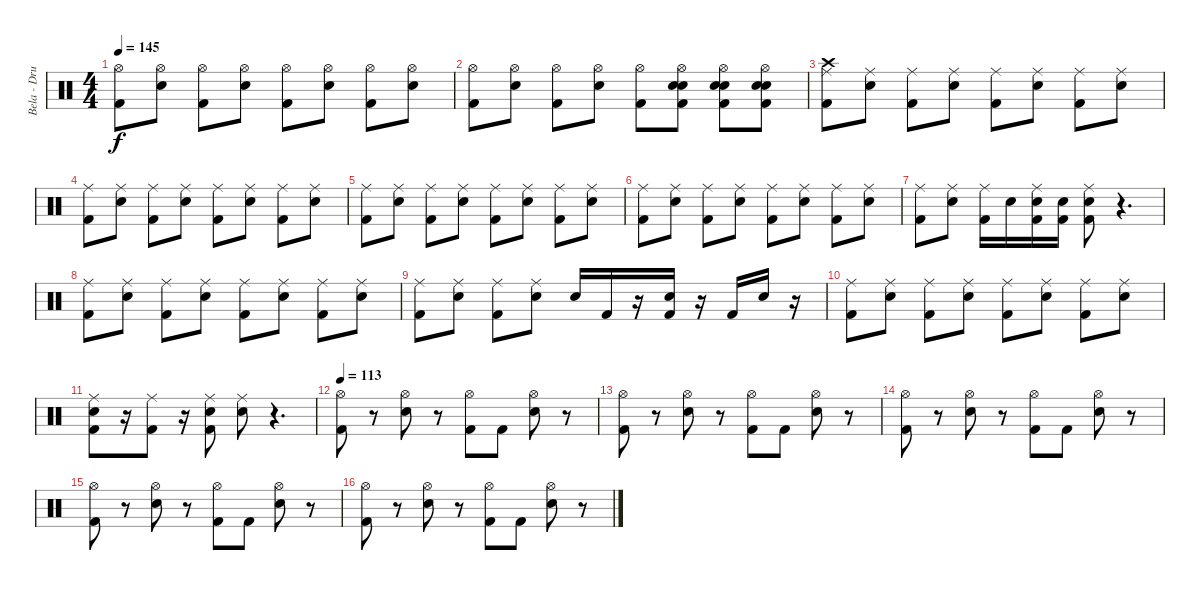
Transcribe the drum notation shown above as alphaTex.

\track ("Bela - Drums" "Bela - Dru") {instrument percussion}
\staff {score}
\articulation defaults
\ts (4 4)
\tempo 145
\clef neutral
\ks c
("Hi-Hat (open)" "Kick (hit) 2").8{dy f} ("Hi-Hat (open)" "Electric Snare (hit)").8 ("Hi-Hat (open)" "Kick (hit) 2").8 ("Hi-Hat (open)" "Electric Snare (hit)").8 ("Kick (hit) 2" "Hi-Hat (open)").8 ("Hi-Hat (open)" "Electric Snare (hit)").8 ("Hi-Hat (open)" "Kick (hit) 2").8 ("Electric Snare (hit)" "Hi-Hat (open)").8 |
("Kick (hit) 2" "Hi-Hat (open)").8 ("Electric Snare (hit)" "Hi-Hat (open)").8 ("Hi-Hat (open)" "Kick (hit) 2").8 ("Electric Snare (hit)" "Hi-Hat (open)").8 ("Hi-Hat (open)" "Kick (hit) 2").8 ("Snare (hit) 2" "Kick (hit) 2" "Hi-Hat (open)" "Electric Snare (hit)").8 ("Electric Snare (hit)" "Snare (hit) 2" "Kick (hit) 2" "Hi-Hat (open)").8 ("Kick (hit) 2" "Hi-Hat (open)" "Electric Snare (hit)" "Snare (hit) 2").8 |
("Ride (middle)" "Kick (hit) 2" "Crash high (hit)").8 ("Ride (middle)" "Electric Snare (hit)").8 ("Ride (middle)" "Kick (hit) 2").8 ("Ride (middle)" "Electric Snare (hit)").8 ("Ride (middle)" "Kick (hit) 2").8 ("Ride (middle)" "Electric Snare (hit)").8 ("Kick (hit) 2" "Ride (middle)").8 ("Ride (middle)" "Electric Snare (hit)").8 |
("Ride (middle)" "Kick (hit) 2").8 ("Ride (middle)" "Electric Snare (hit)").8 ("Ride (middle)" "Kick (hit) 2").8 ("Ride (middle)" "Electric Snare (hit)").8 ("Ride (middle)" "Kick (hit) 2").8 ("Ride (middle)" "Electric Snare (hit)").8 ("Kick (hit) 2" "Ride (middle)").8 ("Ride (middle)" "Electric Snare (hit)").8 |
("Ride (middle)" "Kick (hit) 2").8 ("Ride (middle)" "Electric Snare (hit)").8 ("Ride (middle)" "Kick (hit) 2").8 ("Ride (middle)" "Electric Snare (hit)").8 ("Ride (middle)" "Kick (hit) 2").8 ("Ride (middle)" "Electric Snare (hit)").8 ("Kick (hit) 2" "Ride (middle)").8 ("Ride (middle)" "Electric Snare (hit)").8 |
("Ride (middle)" "Kick (hit) 2").8 ("Ride (middle)" "Electric Snare (hit)").8 ("Ride (middle)" "Kick (hit) 2").8 ("Ride (middle)" "Electric Snare (hit)").8 ("Ride (middle)" "Kick (hit) 2").8 ("Ride (middle)" "Electric Snare (hit)").8 ("Ride (middle)" "Kick (hit) 2").8 ("Ride (middle)" "Electric Snare (hit)").8 |
("Ride (middle)" "Kick (hit) 2").8 ("Ride (middle)" "Electric Snare (hit)").8 ("Ride (middle)" "Kick (hit) 2").16 "Electric Snare (hit)".16 ("Electric Snare (hit)" "Kick (hit) 2" "Ride (middle)").16 ("Electric Snare (hit)" "Kick (hit) 2").16 ("Kick (hit) 2" "Ride (middle)" "Electric Snare (hit)").8 r.4{d} |
("Ride (middle)" "Kick (hit) 2").8 ("Ride (middle)" "Electric Snare (hit)").8 ("Ride (middle)" "Kick (hit) 2").8 ("Ride (middle)" "Electric Snare (hit)").8 ("Ride (middle)" "Kick (hit) 2").8 ("Ride (middle)" "Electric Snare (hit)").8 ("Ride (middle)" "Kick (hit) 2").8 ("Ride (middle)" "Electric Snare (hit)").8 |
("Ride (middle)" "Kick (hit) 2").8 ("Ride (middle)" "Electric Snare (hit)").8 ("Ride (middle)" "Kick (hit) 2").8 ("Ride (middle)" "Electric Snare (hit)").8 "Electric Snare (hit)".16 "Kick (hit) 2".16 r.16 ("Electric Snare (hit)" "Kick (hit) 2").16 r.16 "Kick (hit) 2".16 "Electric Snare (hit)".16 r.16 |
("Ride (middle)" "Kick (hit) 2").8 ("Ride (middle)" "Electric Snare (hit)").8 ("Ride (middle)" "Kick (hit) 2").8 ("Ride (middle)" "Electric Snare (hit)").8 ("Ride (middle)" "Kick (hit) 2").8 ("Ride (middle)" "Electric Snare (hit)").8 ("Ride (middle)" "Kick (hit) 2").8 ("Electric Snare (hit)" "Ride (middle)").8 |
("Ride (middle)" "Kick (hit) 2" "Electric Snare (hit)").8 r.16 ("Ride (middle)" "Kick (hit) 2").8 r.16 ("Electric Snare (hit)" "Ride (middle)" "Kick (hit) 2").8 ("Electric Snare (hit)" "Ride (middle)").8 r.4{d} |
\tempo 113
("Kick (hit) 2" "Hi-Hat (open)").8 r.8 ("Electric Snare (hit)" "Hi-Hat (open)").8 r.8 ("Kick (hit) 2" "Hi-Hat (open)").8 "Kick (hit) 2".8 ("Electric Snare (hit)" "Hi-Hat (open)").8 r.8 |
("Kick (hit) 2" "Hi-Hat (open)").8 r.8 ("Electric Snare (hit)" "Hi-Hat (open)").8 r.8 ("Kick (hit) 2" "Hi-Hat (open)").8 "Kick (hit) 2".8 ("Electric Snare (hit)" "Hi-Hat (open)").8 r.8 |
("Kick (hit) 2" "Hi-Hat (open)").8 r.8 ("Electric Snare (hit)" "Hi-Hat (open)").8 r.8 ("Kick (hit) 2" "Hi-Hat (open)").8 "Kick (hit) 2".8 ("Electric Snare (hit)" "Hi-Hat (open)").8 r.8 |
("Kick (hit) 2" "Hi-Hat (open)").8 r.8 ("Electric Snare (hit)" "Hi-Hat (open)").8 r.8 ("Kick (hit) 2" "Hi-Hat (open)").8 "Kick (hit) 2".8 ("Electric Snare (hit)" "Hi-Hat (open)").8 r.8 |
("Kick (hit) 2" "Hi-Hat (open)").8 r.8 ("Electric Snare (hit)" "Hi-Hat (open)").8 r.8 ("Kick (hit) 2" "Hi-Hat (open)").8 "Kick (hit) 2".8 ("Electric Snare (hit)" "Hi-Hat (open)").8 r.8
